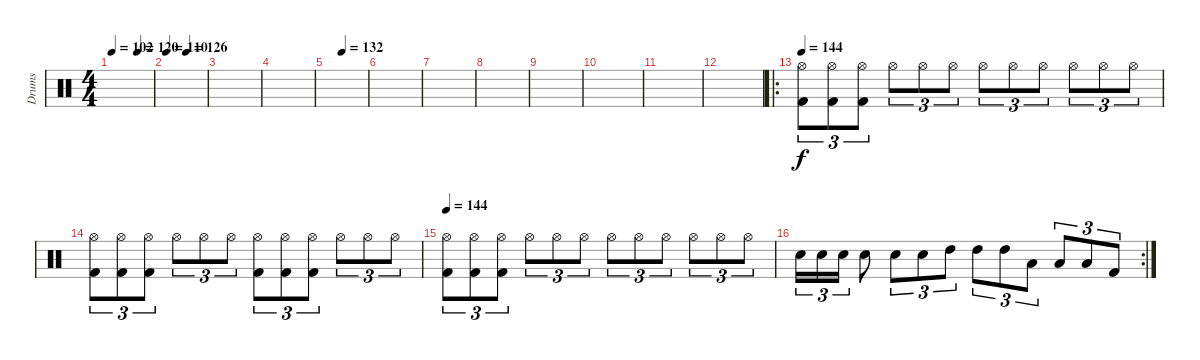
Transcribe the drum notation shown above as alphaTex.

\track ("Drums" "Drums") {instrument percussion}
\staff {score}
\articulation defaults
\ts (4 4)
\tempo 102
\tempo (120 0.625)
\clef neutral
\ks c
|
\tempo 110
\tempo (126 0.5)
|
|
|
\tempo (132 0.375)
|
|
|
|
|
|
|
|
\ro
\tempo 144
("Hi-Hat (open)" "Kick (hit) 2").8{tu (3 2)} ("Hi-Hat (open)" "Kick (hit) 2").8{tu (3 2)} ("Hi-Hat (open)" "Kick (hit) 2").8{tu (3 2)} "Hi-Hat (open)".8{tu (3 2)} "Hi-Hat (open)".8{tu (3 2)} "Hi-Hat (open)".8{tu (3 2)} "Hi-Hat (open)".8{tu (3 2)} "Hi-Hat (open)".8{tu (3 2)} "Hi-Hat (open)".8{tu (3 2)} "Hi-Hat (open)".8{tu (3 2)} "Hi-Hat (open)".8{tu (3 2)} "Hi-Hat (open)".8{tu (3 2)} |
("Hi-Hat (open)" "Kick (hit) 2").8{tu (3 2)} ("Hi-Hat (open)" "Kick (hit) 2").8{tu (3 2)} ("Hi-Hat (open)" "Kick (hit) 2").8{tu (3 2)} "Hi-Hat (open)".8{tu (3 2)} "Hi-Hat (open)".8{tu (3 2)} "Hi-Hat (open)".8{tu (3 2)} ("Hi-Hat (open)" "Kick (hit) 2").8{tu (3 2)} ("Hi-Hat (open)" "Kick (hit) 2").8{tu (3 2)} ("Hi-Hat (open)" "Kick (hit) 2").8{tu (3 2)} "Hi-Hat (open)".8{tu (3 2)} "Hi-Hat (open)".8{tu (3 2)} "Hi-Hat (open)".8{tu (3 2)} |
\tempo 144
("Hi-Hat (open)" "Kick (hit) 2").8{tu (3 2)} ("Hi-Hat (open)" "Kick (hit) 2").8{tu (3 2)} ("Hi-Hat (open)" "Kick (hit) 2").8{tu (3 2)} "Hi-Hat (open)".8{tu (3 2)} "Hi-Hat (open)".8{tu (3 2)} "Hi-Hat (open)".8{tu (3 2)} "Hi-Hat (open)".8{tu (3 2)} "Hi-Hat (open)".8{tu (3 2)} "Hi-Hat (open)".8{tu (3 2)} "Hi-Hat (open)".8{tu (3 2)} "Hi-Hat (open)".8{tu (3 2)} "Hi-Hat (open)".8{tu (3 2)} |
\rc 2 "Snare (hit) 2".16{tu (3 2) dy f} "Snare (hit) 2".16{tu (3 2)} "Snare (hit) 2".16{tu (3 2)} "Snare (hit) 2".8 "Snare (hit) 2".8{tu (3 2)} "Snare (hit) 2".8{tu (3 2)} "High Tom (hit)".8{tu (3 2)} "High Tom (hit)".8{tu (3 2)} "High Tom (hit)".8{tu (3 2)} "Low Tom (hit)".8{tu (3 2)} "Low Tom (hit)".8{tu (3 2)} "Low Tom (hit)".8{tu (3 2)} "Kick (hit) 2".8{tu (3 2)}
